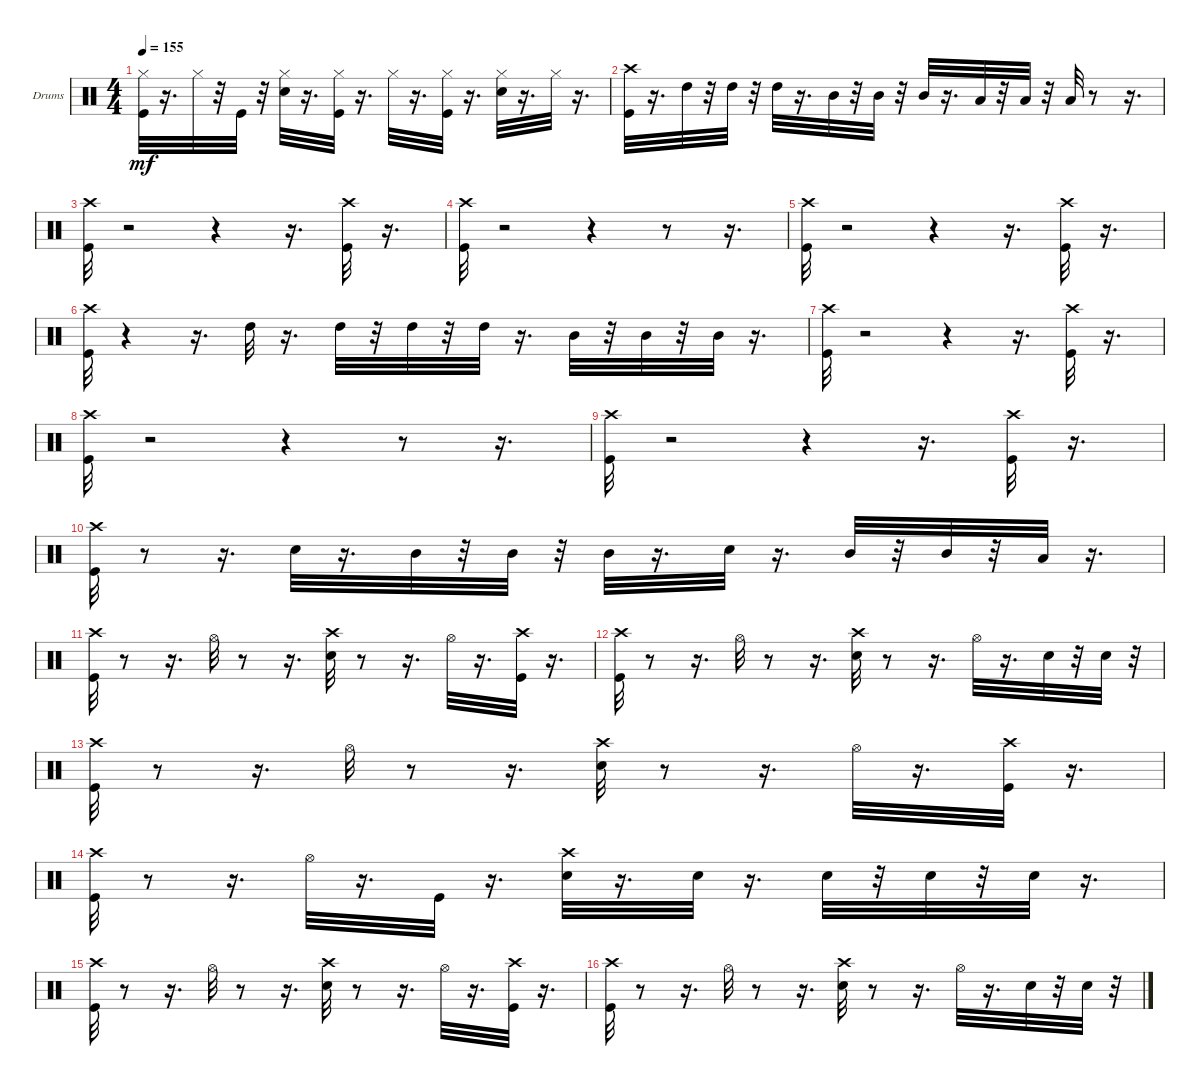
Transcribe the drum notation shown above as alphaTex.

\bracketExtendMode groupsimilarinstruments
\firstSystemTrackNameOrientation horizontal
\otherSystemsTrackNameOrientation horizontal
\track ("" "Drums") {instrument percussion}
\staff {score}
\articulation defaults
\ts (4 4)
\tempo 155
\clef neutral
\ks c
("Hi-Hat (closed)" "Kick (hit)").32{dy mf} r.16{d} "Hi-Hat (closed)".32 r.32 "Kick (hit)".32 r.32 ("Hi-Hat (closed)" "Snare (hit) 2").32 r.16{d} ("Kick (hit)" "Hi-Hat (closed)").32 r.16{d} "Hi-Hat (closed)".32 r.16{d} ("Kick (hit)" "Hi-Hat (closed)").32 r.16{d} ("Hi-Hat (closed)" "Snare (hit) 2").32 r.16{d} "Hi-Hat (closed)".32 r.16{d} |
("Crash high (hit)" "Kick (hit)").32 r.16{d} "High Tom (hit)".32 r.32 "High Tom (hit)".32 r.32 "High Tom (hit)".32 r.16{d} "Mid Tom (hit)".32 r.32 "Mid Tom (hit)".32 r.32 "Mid Tom (hit)".32 r.16{d} "Low Tom (hit)".32 r.32 "Low Tom (hit)".32 r.32 "Low Tom (hit)".32 r.8 r.16{d} |
("Crash high (hit)" "Kick (hit)").32 r.2 r.4 r.16{d} ("Crash high (hit)" "Kick (hit)").32 r.16{d} |
("Crash high (hit)" "Kick (hit)").32 r.2 r.4 r.8 r.16{d} |
("Crash high (hit)" "Kick (hit)").32 r.2 r.4 r.16{d} ("Crash high (hit)" "Kick (hit)").32 r.16{d} |
("Crash high (hit)" "Kick (hit)").32 r.4 r.16{d} "High Tom (hit)".32 r.16{d} "High Tom (hit)".32 r.32 "High Tom (hit)".32 r.32 "High Tom (hit)".32 r.16{d} "Mid Tom (hit)".32 r.32 "Mid Tom (hit)".32 r.32 "Mid Tom (hit)".32 r.16{d} |
("Crash high (hit)" "Kick (hit)").32 r.2 r.4 r.16{d} ("Crash high (hit)" "Kick (hit)").32 r.16{d} |
("Crash high (hit)" "Kick (hit)").32 r.2 r.4 r.8 r.16{d} |
("Crash high (hit)" "Kick (hit)").32 r.2 r.4 r.16{d} ("Crash high (hit)" "Kick (hit)").32 r.16{d} |
("Crash high (hit)" "Kick (hit)").32 r.8 r.16{d} "Snare (hit) 2".32 r.16{d} "Mid Tom (hit)".32 r.32 "Mid Tom (hit)".32 r.32 "Mid Tom (hit)".32 r.16{d} "Snare (hit) 2".32 r.16{d} "Mid Tom (hit)".32 r.32 "Mid Tom (hit)".32 r.32 "Low Tom (hit)".32 r.16{d} |
("Crash high (hit)" "Kick (hit)").32 r.8 r.16{d} "Hi-Hat (open)".32 r.8 r.16{d} ("Snare (hit) 2" "Crash high (hit)").32 r.8 r.16{d} "Hi-Hat (open)".32 r.16{d} ("Crash high (hit)" "Kick (hit)").32 r.16{d} |
("Crash high (hit)" "Kick (hit)").32 r.8 r.16{d} "Hi-Hat (open)".32 r.8 r.16{d} ("Snare (hit) 2" "Crash high (hit)").32 r.8 r.16{d} "Hi-Hat (open)".32 r.16{d} "Snare (hit) 2".32 r.32 "Snare (hit) 2".32 r.32 |
("Crash high (hit)" "Kick (hit)").32 r.8 r.16{d} "Hi-Hat (open)".32 r.8 r.16{d} ("Snare (hit) 2" "Crash high (hit)").32 r.8 r.16{d} "Hi-Hat (open)".32 r.16{d} ("Crash high (hit)" "Kick (hit)").32 r.16{d} |
("Crash high (hit)" "Kick (hit)").32 r.8 r.16{d} "Hi-Hat (open)".32 r.16{d} "Kick (hit)".32 r.16{d} ("Crash high (hit)" "Snare (hit) 2").32 r.16{d} "Snare (hit) 2".32 r.16{d} "Snare (hit) 2".32 r.32 "Snare (hit) 2".32 r.32 "Snare (hit) 2".32 r.16{d} |
("Crash high (hit)" "Kick (hit)").32 r.8 r.16{d} "Hi-Hat (open)".32 r.8 r.16{d} ("Snare (hit) 2" "Crash high (hit)").32 r.8 r.16{d} "Hi-Hat (open)".32 r.16{d} ("Crash high (hit)" "Kick (hit)").32 r.16{d} |
("Crash high (hit)" "Kick (hit)").32 r.8 r.16{d} "Hi-Hat (open)".32 r.8 r.16{d} ("Snare (hit) 2" "Crash high (hit)").32 r.8 r.16{d} "Hi-Hat (open)".32 r.16{d} "Snare (hit) 2".32 r.32 "Snare (hit) 2".32 r.32
